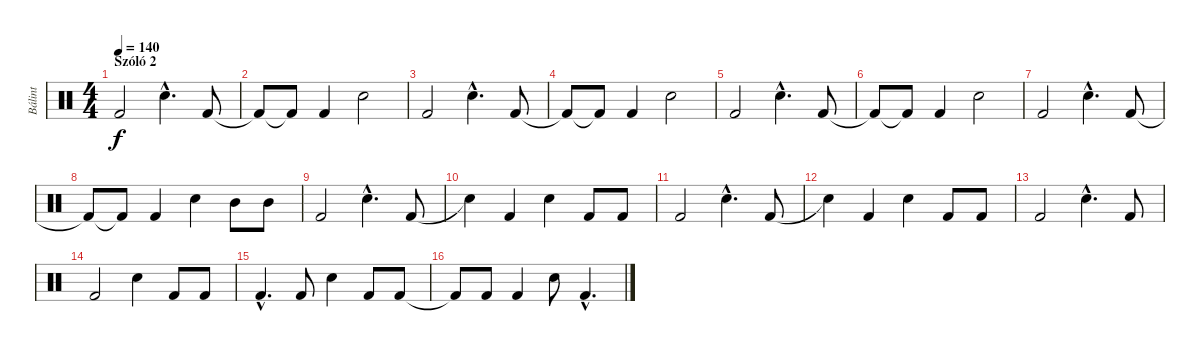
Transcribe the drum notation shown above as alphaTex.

\track ("Bálint" "Bálint") {instrument percussion}
\staff {score}
\articulation defaults
\ts (4 4)
\section ("" "Szóló 2")
\tempo 140
\clef neutral
\ks c "Kick (hit) 2".2{dy f} "Snare (hit) 2"{hac}.4{d} "Kick (hit) 2".8
|
"Kick (hit) 2"{t}.8 "Kick (hit) 2"{t}.8 "Kick (hit) 2".4 "Snare (hit) 2".2 |
"Kick (hit) 2".2 "Snare (hit) 2"{hac}.4{d} "Kick (hit) 2".8 |
"Kick (hit) 2"{t}.8 "Kick (hit) 2"{t}.8 "Kick (hit) 2".4 "Snare (hit) 2".2 |
"Kick (hit) 2".2 "Snare (hit) 2"{hac}.4{d} "Kick (hit) 2".8 |
"Kick (hit) 2"{t}.8 "Kick (hit) 2"{t}.8 "Kick (hit) 2".4 "Snare (hit) 2".2 |
"Kick (hit) 2".2 "Snare (hit) 2"{hac}.4{d} "Kick (hit) 2".8 |
"Kick (hit) 2"{t}.8 "Kick (hit) 2"{t}.8 "Kick (hit) 2".4 "Snare (hit) 2".4 "Mid Tom (hit)".8 "Mid Tom (hit)".8 |
"Kick (hit) 2".2 "Snare (hit) 2"{hac}.4{d} "Kick (hit) 2".8 |
"Snare (hit)"{t}.4 "Kick (hit) 2".4 "Snare (hit) 2".4 "Kick (hit) 2".8 "Kick (hit) 2".8 |
"Kick (hit) 2".2 "Snare (hit) 2"{hac}.4{d} "Kick (hit) 2".8 |
"Snare (hit)"{t}.4 "Kick (hit) 2".4 "Snare (hit) 2".4 "Kick (hit) 2".8 "Kick (hit) 2".8 |
"Kick (hit) 2".2 "Snare (hit) 2"{hac}.4{d} "Kick (hit) 2".8 |
"Kick (hit) 2".2 "Snare (hit) 2".4 "Kick (hit) 2".8 "Kick (hit) 2".8 |
"Kick (hit) 2"{hac}.4{d} "Kick (hit) 2".8 "Snare (hit) 2".4 "Kick (hit) 2".8 "Kick (hit) 2".8 |
"Kick (hit) 2"{t}.8 "Kick (hit) 2".8 "Kick (hit) 2".4 "Snare (hit) 2".8 "Kick (hit) 2"{hac}.4{d}
